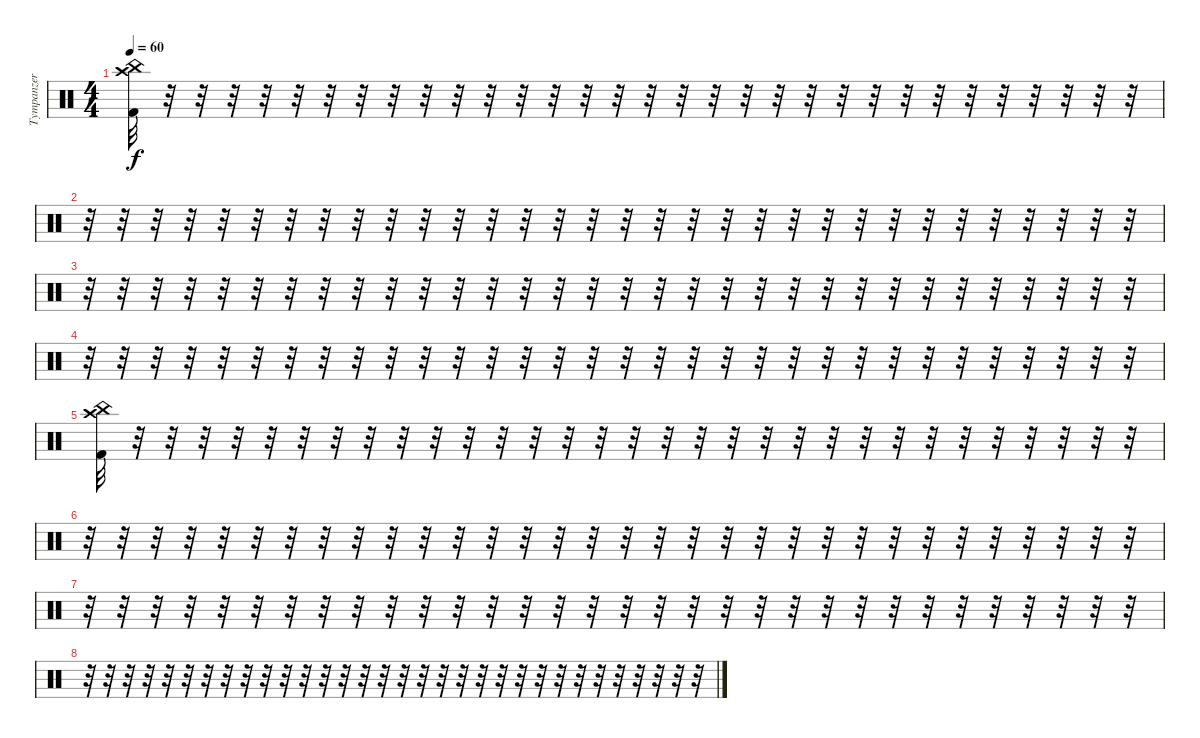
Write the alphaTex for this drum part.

\track ("Tympanzer" "Tympanzer") {instrument percussion}
\staff {score}
\articulation defaults
\ts (4 4)
\tempo 60
\clef neutral
\ks c
("China (hit)" "Crash high (hit)" "Kick (hit) 2").32{dy f} r.32 r.32 r.32 r.32 r.32 r.32 r.32 r.32 r.32 r.32 r.32 r.32 r.32 r.32 r.32 r.32 r.32 r.32 r.32 r.32 r.32 r.32 r.32 r.32 r.32 r.32 r.32 r.32 r.32 r.32 r.32 |
r.32 r.32 r.32 r.32 r.32 r.32 r.32 r.32 r.32 r.32 r.32 r.32 r.32 r.32 r.32 r.32 r.32 r.32 r.32 r.32 r.32 r.32 r.32 r.32 r.32 r.32 r.32 r.32 r.32 r.32 r.32 r.32 |
r.32 r.32 r.32 r.32 r.32 r.32 r.32 r.32 r.32 r.32 r.32 r.32 r.32 r.32 r.32 r.32 r.32 r.32 r.32 r.32 r.32 r.32 r.32 r.32 r.32 r.32 r.32 r.32 r.32 r.32 r.32 r.32 |
r.32 r.32 r.32 r.32 r.32 r.32 r.32 r.32 r.32 r.32 r.32 r.32 r.32 r.32 r.32 r.32 r.32 r.32 r.32 r.32 r.32 r.32 r.32 r.32 r.32 r.32 r.32 r.32 r.32 r.32 r.32 r.32 |
("China (hit)" "Crash high (hit)" "Kick (hit) 2").32 r.32 r.32 r.32 r.32 r.32 r.32 r.32 r.32 r.32 r.32 r.32 r.32 r.32 r.32 r.32 r.32 r.32 r.32 r.32 r.32 r.32 r.32 r.32 r.32 r.32 r.32 r.32 r.32 r.32 r.32 r.32 |
r.32 r.32 r.32 r.32 r.32 r.32 r.32 r.32 r.32 r.32 r.32 r.32 r.32 r.32 r.32 r.32 r.32 r.32 r.32 r.32 r.32 r.32 r.32 r.32 r.32 r.32 r.32 r.32 r.32 r.32 r.32 r.32 |
r.32 r.32 r.32 r.32 r.32 r.32 r.32 r.32 r.32 r.32 r.32 r.32 r.32 r.32 r.32 r.32 r.32 r.32 r.32 r.32 r.32 r.32 r.32 r.32 r.32 r.32 r.32 r.32 r.32 r.32 r.32 r.32 |
r.32 r.32 r.32 r.32 r.32 r.32 r.32 r.32 r.32 r.32 r.32 r.32 r.32 r.32 r.32 r.32 r.32 r.32 r.32 r.32 r.32 r.32 r.32 r.32 r.32 r.32 r.32 r.32 r.32 r.32 r.32 r.32
